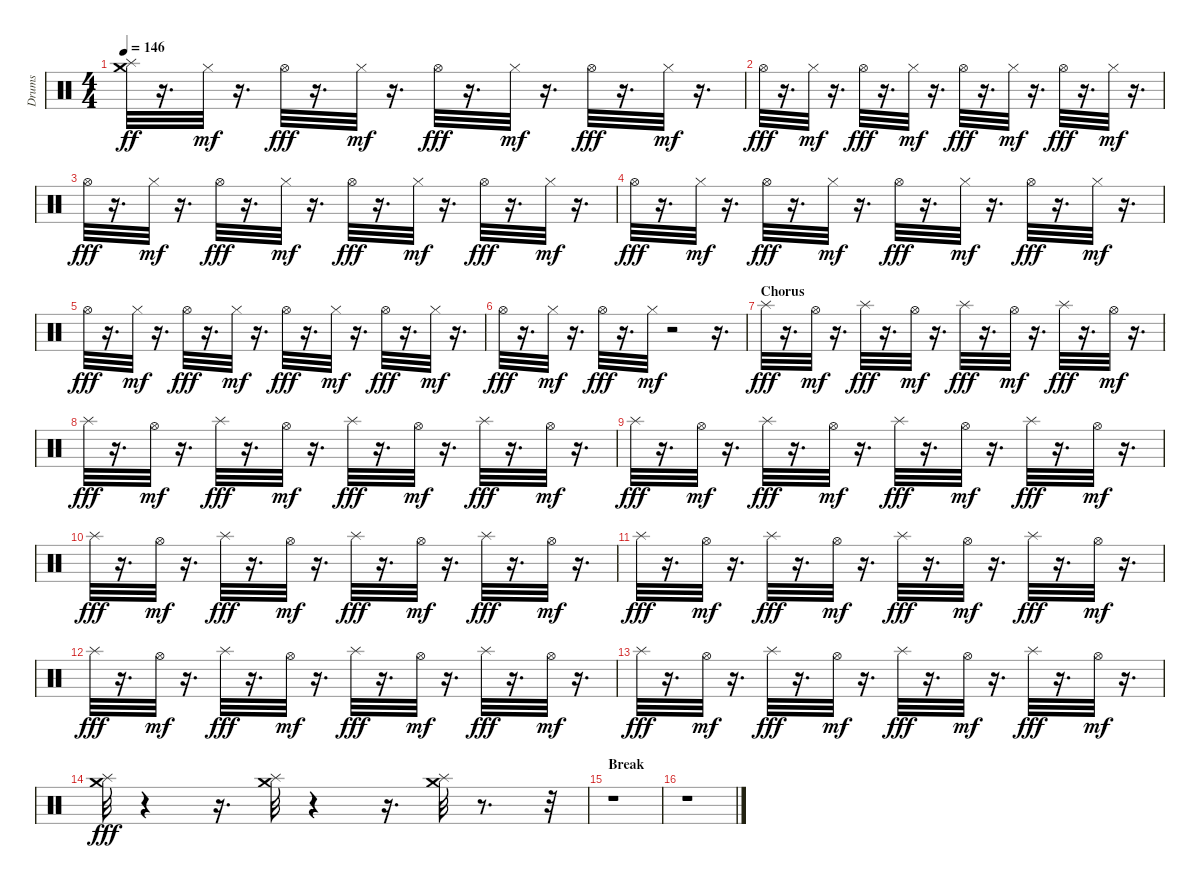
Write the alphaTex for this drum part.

\track ("Drums" "Drums") {instrument percussion}
\staff {score}
\articulation defaults
\ts (4 4)
\tempo 146
\clef neutral
\ks c
("Crash medium (hit)" "Splash (hit)").32{dy ff} r.16{d} "Hi-Hat (closed)".32{dy mf} r.16{d} "Hi-Hat (open)".32{dy fff} r.16{d} "Hi-Hat (closed)".32{dy mf} r.16{d} "Hi-Hat (open)".32{dy fff} r.16{d} "Hi-Hat (closed)".32{dy mf} r.16{d} "Hi-Hat (open)".32{dy fff} r.16{d} "Hi-Hat (closed)".32{dy mf} r.16{d} |
"Hi-Hat (open)".32{dy fff} r.16{d} "Hi-Hat (closed)".32{dy mf} r.16{d} "Hi-Hat (open)".32{dy fff} r.16{d} "Hi-Hat (closed)".32{dy mf} r.16{d} "Hi-Hat (open)".32{dy fff} r.16{d} "Hi-Hat (closed)".32{dy mf} r.16{d} "Hi-Hat (open)".32{dy fff} r.16{d} "Hi-Hat (closed)".32{dy mf} r.16{d} |
"Hi-Hat (open)".32{dy fff} r.16{d} "Hi-Hat (closed)".32{dy mf} r.16{d} "Hi-Hat (open)".32{dy fff} r.16{d} "Hi-Hat (closed)".32{dy mf} r.16{d} "Hi-Hat (open)".32{dy fff} r.16{d} "Hi-Hat (closed)".32{dy mf} r.16{d} "Hi-Hat (open)".32{dy fff} r.16{d} "Hi-Hat (closed)".32{dy mf} r.16{d} |
"Hi-Hat (open)".32{dy fff} r.16{d} "Hi-Hat (closed)".32{dy mf} r.16{d} "Hi-Hat (open)".32{dy fff} r.16{d} "Hi-Hat (closed)".32{dy mf} r.16{d} "Hi-Hat (open)".32{dy fff} r.16{d} "Hi-Hat (closed)".32{dy mf} r.16{d} "Hi-Hat (open)".32{dy fff} r.16{d} "Hi-Hat (closed)".32{dy mf} r.16{d} |
"Hi-Hat (open)".32{dy fff} r.16{d} "Hi-Hat (closed)".32{dy mf} r.16{d} "Hi-Hat (open)".32{dy fff} r.16{d} "Hi-Hat (closed)".32{dy mf} r.16{d} "Hi-Hat (open)".32{dy fff} r.16{d} "Hi-Hat (closed)".32{dy mf} r.16{d} "Hi-Hat (open)".32{dy fff} r.16{d} "Hi-Hat (closed)".32{dy mf} r.16{d} |
"Hi-Hat (open)".32{dy fff} r.16{d} "Hi-Hat (closed)".32{dy mf} r.16{d} "Hi-Hat (open)".32{dy fff} r.16{d} "Hi-Hat (closed)".32{dy mf} r.2 r.16{d} |
\section ("" "Chorus")
"Splash (hit)".32{dy fff} r.16{d} "Hi-Hat (open)".32{dy mf} r.16{d} "Splash (hit)".32{dy fff} r.16{d} "Hi-Hat (open)".32{dy mf} r.16{d} "Splash (hit)".32{dy fff} r.16{d} "Hi-Hat (open)".32{dy mf} r.16{d} "Splash (hit)".32{dy fff} r.16{d} "Hi-Hat (open)".32{dy mf} r.16{d} |
"Splash (hit)".32{dy fff} r.16{d} "Hi-Hat (open)".32{dy mf} r.16{d} "Splash (hit)".32{dy fff} r.16{d} "Hi-Hat (open)".32{dy mf} r.16{d} "Splash (hit)".32{dy fff} r.16{d} "Hi-Hat (open)".32{dy mf} r.16{d} "Splash (hit)".32{dy fff} r.16{d} "Hi-Hat (open)".32{dy mf} r.16{d} |
"Splash (hit)".32{dy fff} r.16{d} "Hi-Hat (open)".32{dy mf} r.16{d} "Splash (hit)".32{dy fff} r.16{d} "Hi-Hat (open)".32{dy mf} r.16{d} "Splash (hit)".32{dy fff} r.16{d} "Hi-Hat (open)".32{dy mf} r.16{d} "Splash (hit)".32{dy fff} r.16{d} "Hi-Hat (open)".32{dy mf} r.16{d} |
"Splash (hit)".32{dy fff} r.16{d} "Hi-Hat (open)".32{dy mf} r.16{d} "Splash (hit)".32{dy fff} r.16{d} "Hi-Hat (open)".32{dy mf} r.16{d} "Splash (hit)".32{dy fff} r.16{d} "Hi-Hat (open)".32{dy mf} r.16{d} "Splash (hit)".32{dy fff} r.16{d} "Hi-Hat (open)".32{dy mf} r.16{d} |
"Splash (hit)".32{dy fff} r.16{d} "Hi-Hat (open)".32{dy mf} r.16{d} "Splash (hit)".32{dy fff} r.16{d} "Hi-Hat (open)".32{dy mf} r.16{d} "Splash (hit)".32{dy fff} r.16{d} "Hi-Hat (open)".32{dy mf} r.16{d} "Splash (hit)".32{dy fff} r.16{d} "Hi-Hat (open)".32{dy mf} r.16{d} |
"Splash (hit)".32{dy fff} r.16{d} "Hi-Hat (open)".32{dy mf} r.16{d} "Splash (hit)".32{dy fff} r.16{d} "Hi-Hat (open)".32{dy mf} r.16{d} "Splash (hit)".32{dy fff} r.16{d} "Hi-Hat (open)".32{dy mf} r.16{d} "Splash (hit)".32{dy fff} r.16{d} "Hi-Hat (open)".32{dy mf} r.16{d} |
"Splash (hit)".32{dy fff} r.16{d} "Hi-Hat (open)".32{dy mf} r.16{d} "Splash (hit)".32{dy fff} r.16{d} "Hi-Hat (open)".32{dy mf} r.16{d} "Splash (hit)".32{dy fff} r.16{d} "Hi-Hat (open)".32{dy mf} r.16{d} "Splash (hit)".32{dy fff} r.16{d} "Hi-Hat (open)".32{dy mf} r.16{d} |
("Splash (hit)" "Crash medium (hit)").32{dy fff} r.4 r.16{d} ("Crash medium (hit)" "Splash (hit)").32 r.4 r.16{d} ("Splash (hit)" "Crash medium (hit)").32 r.8{d} r.32 |
\section ("" "Break")
r.1 |
r.1
